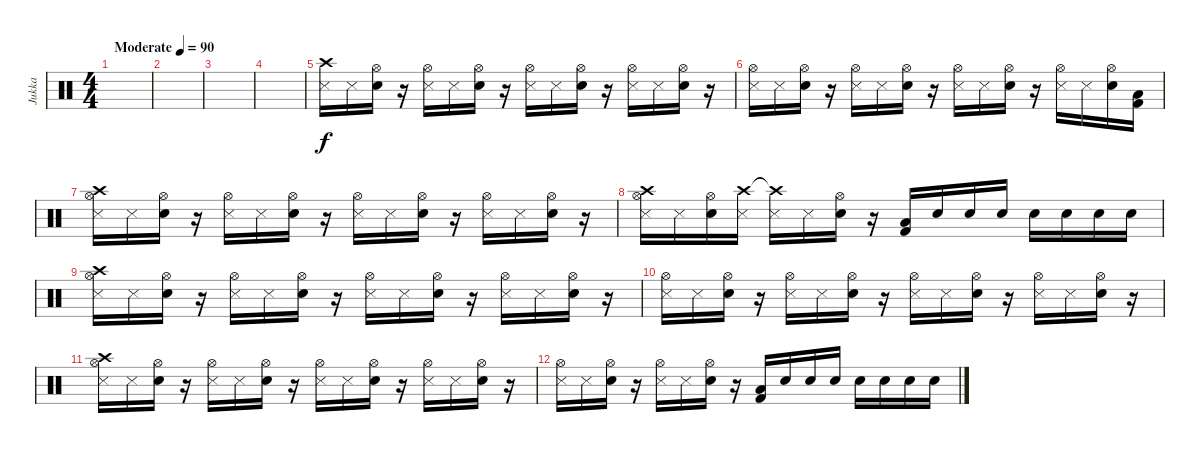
\track ("Jukka" "Jukka") {instrument percussion}
\staff {score}
\articulation defaults
\ts (4 4)
\tempo (90 "Moderate")
\clef neutral
\ks c
|
|
|
|
("Crash high (hit)" "Snare (side stick) 3").16 "Snare (side stick) 3".16 ("Snare (hit) 2" "Hi-Hat (open)").16 r.16 ("Hi-Hat (open)" "Snare (side stick) 3").16 "Snare (side stick) 3".16 ("Snare (hit) 2" "Hi-Hat (open)").16 r.16 ("Hi-Hat (open)" "Snare (side stick) 3").16 "Snare (side stick) 3".16 ("Snare (hit) 2" "Hi-Hat (open)").16 r.16 ("Hi-Hat (open)" "Snare (side stick) 3").16 "Snare (side stick) 3".16 ("Snare (hit) 2" "Hi-Hat (open)").16 r.16 |
("Hi-Hat (open)" "Snare (side stick) 3").16 "Snare (side stick) 3".16 ("Snare (hit) 2" "Hi-Hat (open)").16 r.16 ("Hi-Hat (open)" "Snare (side stick) 3").16 "Snare (side stick) 3".16 ("Snare (hit) 2" "Hi-Hat (open)").16 r.16 ("Hi-Hat (open)" "Snare (side stick) 3").16 "Snare (side stick) 3".16 ("Snare (hit) 2" "Hi-Hat (open)").16 r.16 ("Hi-Hat (open)" "Snare (side stick) 3").16 "Snare (side stick) 3".16 ("Snare (hit) 2" "Hi-Hat (open)").16 ("Low Floor Tom (hit)" "Kick (hit) 2").16 |
("Hi-Hat (open)" "Snare (side stick) 3" "Crash high (hit)").16 "Snare (side stick) 3".16 ("Snare (hit) 2" "Hi-Hat (open)").16 r.16 ("Hi-Hat (open)" "Snare (side stick) 3").16 "Snare (side stick) 3".16 ("Snare (hit) 2" "Hi-Hat (open)").16 r.16 ("Hi-Hat (open)" "Snare (side stick) 3").16 "Snare (side stick) 3".16 ("Snare (hit) 2" "Hi-Hat (open)").16 r.16 ("Hi-Hat (open)" "Snare (side stick) 3").16 "Snare (side stick) 3".16 ("Snare (hit) 2" "Hi-Hat (open)").16 r.16 |
("Hi-Hat (open)" "Snare (side stick) 3" "Crash high (hit)").16 "Snare (side stick) 3".16 ("Snare (hit) 2" "Hi-Hat (open)").16 ("Crash high (hit)" "Snare (side stick) 3").16 ("Crash high (hit)"{t} "Snare (side stick) 3").16 "Snare (side stick) 3".16 ("Snare (hit) 2" "Hi-Hat (open)").16 r.16 ("Low Floor Tom (hit)" "Kick (hit) 2").16 "Snare (hit) 2".16 "Snare (hit) 2".16 "Snare (hit) 2".16 "Snare (hit) 2".16 "Snare (hit) 2".16 "Snare (hit) 2".16 "Snare (hit) 2".16 |
("Hi-Hat (open)" "Snare (side stick) 3" "Crash high (hit)").16 "Snare (side stick) 3".16 ("Snare (hit) 2" "Hi-Hat (open)").16 r.16 ("Hi-Hat (open)" "Snare (side stick) 3").16 "Snare (side stick) 3".16 ("Snare (hit) 2" "Hi-Hat (open)").16 r.16 ("Hi-Hat (open)" "Snare (side stick) 3").16 "Snare (side stick) 3".16 ("Snare (hit) 2" "Hi-Hat (open)").16 r.16 ("Hi-Hat (open)" "Snare (side stick) 3").16 "Snare (side stick) 3".16 ("Snare (hit) 2" "Hi-Hat (open)").16 r.16 |
("Hi-Hat (open)" "Snare (side stick) 3").16 "Snare (side stick) 3".16 ("Snare (hit) 2" "Hi-Hat (open)").16 r.16 ("Hi-Hat (open)" "Snare (side stick) 3").16 "Snare (side stick) 3".16 ("Snare (hit) 2" "Hi-Hat (open)").16 r.16 ("Hi-Hat (open)" "Snare (side stick) 3").16 "Snare (side stick) 3".16 ("Snare (hit) 2" "Hi-Hat (open)").16 r.16 ("Hi-Hat (open)" "Snare (side stick) 3").16 "Snare (side stick) 3".16 ("Snare (hit) 2" "Hi-Hat (open)").16 r.16 |
("Hi-Hat (open)" "Snare (side stick) 3" "Crash high (hit)").16 "Snare (side stick) 3".16 ("Snare (hit) 2" "Hi-Hat (open)").16 r.16 ("Hi-Hat (open)" "Snare (side stick) 3").16 "Snare (side stick) 3".16 ("Snare (hit) 2" "Hi-Hat (open)").16 r.16 ("Hi-Hat (open)" "Snare (side stick) 3").16 "Snare (side stick) 3".16 ("Snare (hit) 2" "Hi-Hat (open)").16 r.16 ("Hi-Hat (open)" "Snare (side stick) 3").16 "Snare (side stick) 3".16 ("Snare (hit) 2" "Hi-Hat (open)").16 r.16 |
("Hi-Hat (open)" "Snare (side stick) 3").16 "Snare (side stick) 3".16 ("Snare (hit) 2" "Hi-Hat (open)").16 r.16 ("Hi-Hat (open)" "Snare (side stick) 3").16 "Snare (side stick) 3".16 ("Snare (hit) 2" "Hi-Hat (open)").16 r.16 ("Low Floor Tom (hit)" "Kick (hit) 2").16 "Snare (hit) 2".16 "Snare (hit) 2".16 "Snare (hit) 2".16 "Snare (hit) 2".16 "Snare (hit) 2".16 "Snare (hit) 2".16 "Snare (hit) 2".16
